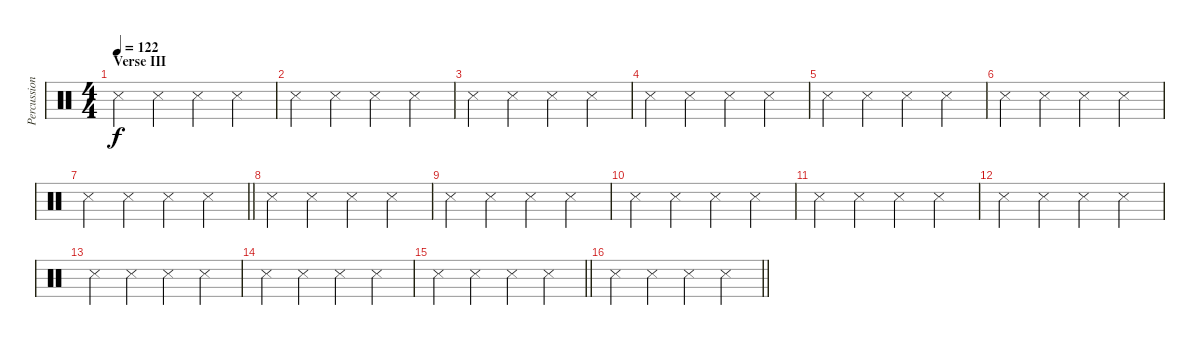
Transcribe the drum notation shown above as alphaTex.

\track ("Percussion" "Percussion") {instrument percussion}
\staff {score}
\articulation defaults
\ts (4 4)
\section ("" "Verse III")
\tempo 122
\clef neutral
\ks c "Snare (side stick) 3".4{dy f} "Metronome (hit)".4 "Metronome (hit)".4 "Metronome (hit)".4
|
"Snare (side stick) 3".4 "Metronome (hit)".4 "Metronome (hit)".4 "Metronome (hit)".4 |
"Snare (side stick) 3".4 "Metronome (hit)".4 "Metronome (hit)".4 "Metronome (hit)".4 |
"Snare (side stick) 3".4 "Metronome (hit)".4 "Metronome (hit)".4 "Metronome (hit)".4 |
"Snare (side stick) 3".4 "Metronome (hit)".4 "Metronome (hit)".4 "Metronome (hit)".4 |
"Snare (side stick) 3".4 "Metronome (hit)".4 "Metronome (hit)".4 "Metronome (hit)".4 |
\barLineRight lightlight "Snare (side stick) 3".4 "Metronome (hit)".4 "Metronome (hit)".4 "Metronome (hit)".4
|
"Snare (side stick) 3".4 "Metronome (hit)".4 "Metronome (hit)".4 "Metronome (hit)".4 |
"Snare (side stick) 3".4 "Metronome (hit)".4 "Metronome (hit)".4 "Metronome (hit)".4 |
"Snare (side stick) 3".4 "Metronome (hit)".4 "Metronome (hit)".4 "Metronome (hit)".4 |
"Snare (side stick) 3".4 "Metronome (hit)".4 "Metronome (hit)".4 "Metronome (hit)".4 |
"Snare (side stick) 3".4 "Metronome (hit)".4 "Metronome (hit)".4 "Metronome (hit)".4 |
"Snare (side stick) 3".4 "Metronome (hit)".4 "Metronome (hit)".4 "Metronome (hit)".4 |
"Snare (side stick) 3".4 "Metronome (hit)".4 "Metronome (hit)".4 "Metronome (hit)".4 |
\barLineRight lightlight "Snare (side stick) 3".4 "Metronome (hit)".4 "Metronome (hit)".4 "Metronome (hit)".4
|
\barLineRight lightlight "Snare (side stick) 3".4 "Metronome (hit)".4 "Metronome (hit)".4 "Metronome (hit)".4
